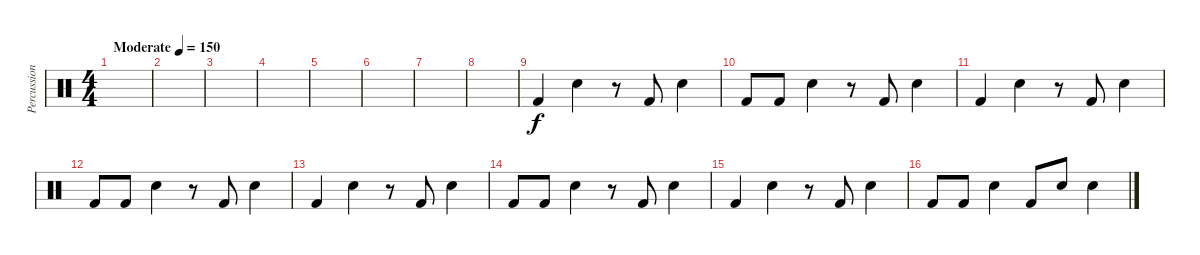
\track ("Percussion" "Percussion") {instrument percussion}
\staff {score}
\articulation defaults
\ts (4 4)
\tempo (150 "Moderate")
\clef neutral
\ks c
|
|
|
|
|
|
|
|
"Kick (hit) 2".4 "Electric Snare (hit)".4 r.8 "Kick (hit) 2".8 "Electric Snare (hit)".4 |
"Kick (hit) 2".8 "Kick (hit) 2".8 "Electric Snare (hit)".4 r.8 "Kick (hit) 2".8 "Electric Snare (hit)".4 |
"Kick (hit) 2".4 "Electric Snare (hit)".4 r.8 "Kick (hit) 2".8 "Electric Snare (hit)".4 |
"Kick (hit) 2".8 "Kick (hit) 2".8 "Electric Snare (hit)".4 r.8 "Kick (hit) 2".8 "Electric Snare (hit)".4 |
"Kick (hit) 2".4 "Electric Snare (hit)".4 r.8 "Kick (hit) 2".8 "Electric Snare (hit)".4 |
"Kick (hit) 2".8 "Kick (hit) 2".8 "Electric Snare (hit)".4 r.8 "Kick (hit) 2".8 "Electric Snare (hit)".4 |
"Kick (hit) 2".4 "Electric Snare (hit)".4 r.8 "Kick (hit) 2".8 "Electric Snare (hit)".4 |
"Kick (hit) 2".8 "Kick (hit) 2".8 "Electric Snare (hit)".4 "Kick (hit) 2".8 "Electric Snare (hit)".8 "Electric Snare (hit)".4
